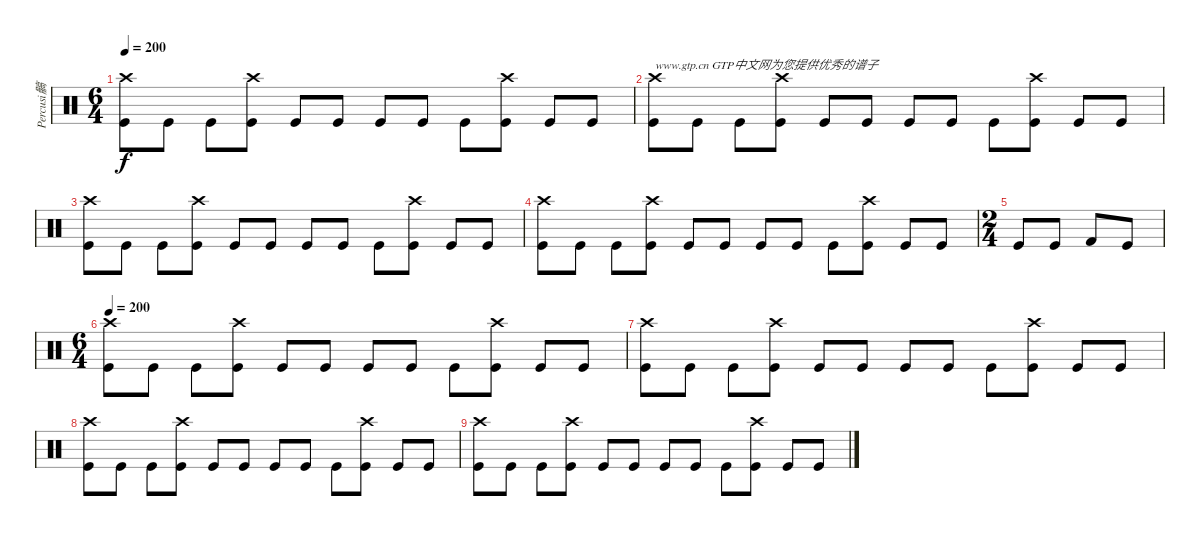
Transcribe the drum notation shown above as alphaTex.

\track ("Percusi髇" "Percusi髇") {instrument percussion}
\staff {score}
\articulation defaults
\ts (6 4)
\tempo 200
\clef neutral
\ks c
("Crash high (hit)" "Kick (hit)").8{dy f} "Kick (hit)".8 "Kick (hit)".8 ("Crash high (hit)" "Kick (hit)").8 "Kick (hit)".8 "Kick (hit)".8 "Kick (hit)".8 "Kick (hit)".8 "Kick (hit)".8 ("Crash high (hit)" "Kick (hit)").8 "Kick (hit)".8 "Kick (hit)".8 |
("Crash high (hit)" "Kick (hit)").8{txt "www.gtp.cn GTP中文网为您提供优秀的谱子"} "Kick (hit)".8 "Kick (hit)".8 ("Crash high (hit)" "Kick (hit)").8 "Kick (hit)".8 "Kick (hit)".8 "Kick (hit)".8 "Kick (hit)".8 "Kick (hit)".8 ("Crash high (hit)" "Kick (hit)").8 "Kick (hit)".8 "Kick (hit)".8 |
("Crash high (hit)" "Kick (hit)").8 "Kick (hit)".8 "Kick (hit)".8 ("Crash high (hit)" "Kick (hit)").8 "Kick (hit)".8 "Kick (hit)".8 "Kick (hit)".8 "Kick (hit)".8 "Kick (hit)".8 ("Crash high (hit)" "Kick (hit)").8 "Kick (hit)".8 "Kick (hit)".8 |
("Crash high (hit)" "Kick (hit)").8 "Kick (hit)".8 "Kick (hit)".8 ("Crash high (hit)" "Kick (hit)").8 "Kick (hit)".8 "Kick (hit)".8 "Kick (hit)".8 "Kick (hit)".8 "Kick (hit)".8 ("Crash high (hit)" "Kick (hit)").8 "Kick (hit)".8 "Kick (hit)".8 |
\ts (2 4)
"Kick (hit)".8 "Kick (hit)".8 "Kick (hit) 2".8 "Kick (hit)".8 |
\ts (6 4)
\tempo 200
("Crash high (hit)" "Kick (hit)").8 "Kick (hit)".8 "Kick (hit)".8 ("Crash high (hit)" "Kick (hit)").8 "Kick (hit)".8 "Kick (hit)".8 "Kick (hit)".8 "Kick (hit)".8 "Kick (hit)".8 ("Crash high (hit)" "Kick (hit)").8 "Kick (hit)".8 "Kick (hit)".8 |
("Crash high (hit)" "Kick (hit)").8 "Kick (hit)".8 "Kick (hit)".8 ("Crash high (hit)" "Kick (hit)").8 "Kick (hit)".8 "Kick (hit)".8 "Kick (hit)".8 "Kick (hit)".8 "Kick (hit)".8 ("Crash high (hit)" "Kick (hit)").8 "Kick (hit)".8 "Kick (hit)".8 |
("Crash high (hit)" "Kick (hit)").8 "Kick (hit)".8 "Kick (hit)".8 ("Crash high (hit)" "Kick (hit)").8 "Kick (hit)".8 "Kick (hit)".8 "Kick (hit)".8 "Kick (hit)".8 "Kick (hit)".8 ("Crash high (hit)" "Kick (hit)").8 "Kick (hit)".8 "Kick (hit)".8 |
("Crash high (hit)" "Kick (hit)").8 "Kick (hit)".8 "Kick (hit)".8 ("Crash high (hit)" "Kick (hit)").8 "Kick (hit)".8 "Kick (hit)".8 "Kick (hit)".8 "Kick (hit)".8 "Kick (hit)".8 ("Crash high (hit)" "Kick (hit)").8 "Kick (hit)".8 "Kick (hit)".8
